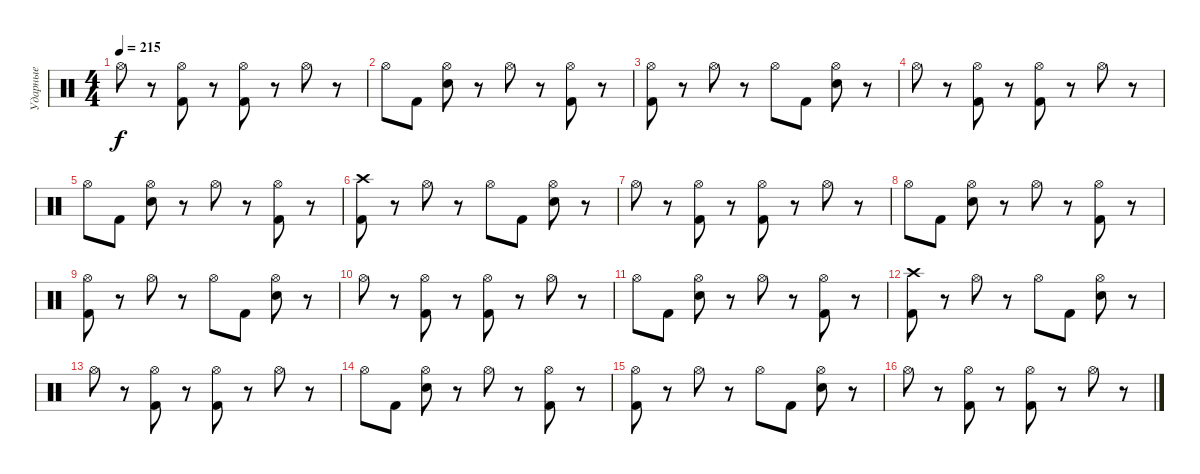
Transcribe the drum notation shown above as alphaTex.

\track ("Ударные" "Ударные") {instrument percussion}
\staff {score}
\articulation defaults
\ts (4 4)
\tempo 215
\clef neutral
\ks c "Hi-Hat (open)".8{dy f}
r.8 ("Hi-Hat (open)" "Kick (hit) 2").8 r.8 ("Hi-Hat (open)" "Kick (hit) 2").8 r.8 "Hi-Hat (open)".8 r.8 |
"Hi-Hat (open)".8 "Kick (hit) 2".8 ("Hi-Hat (open)" "Snare (hit) 2").8 r.8 "Hi-Hat (open)".8 r.8 ("Hi-Hat (open)" "Kick (hit) 2").8 r.8 |
("Hi-Hat (open)" "Kick (hit) 2").8 r.8 "Hi-Hat (open)".8 r.8 "Hi-Hat (open)".8 "Kick (hit) 2".8 ("Hi-Hat (open)" "Snare (hit) 2").8 r.8 |
"Hi-Hat (open)".8 r.8 ("Hi-Hat (open)" "Kick (hit) 2").8 r.8 ("Hi-Hat (open)" "Kick (hit) 2").8 r.8 "Hi-Hat (open)".8 r.8 |
"Hi-Hat (open)".8 "Kick (hit) 2".8 ("Hi-Hat (open)" "Snare (hit) 2").8 r.8 "Hi-Hat (open)".8 r.8 ("Hi-Hat (open)" "Kick (hit) 2").8 r.8 |
("Crash high (hit)" "Kick (hit) 2").8 r.8 "Hi-Hat (open)".8 r.8 "Hi-Hat (open)".8 "Kick (hit) 2".8 ("Hi-Hat (open)" "Snare (hit) 2").8 r.8 |
"Hi-Hat (open)".8 r.8 ("Hi-Hat (open)" "Kick (hit) 2").8 r.8 ("Hi-Hat (open)" "Kick (hit) 2").8 r.8 "Hi-Hat (open)".8 r.8 |
"Hi-Hat (open)".8 "Kick (hit) 2".8 ("Hi-Hat (open)" "Snare (hit) 2").8 r.8 "Hi-Hat (open)".8 r.8 ("Hi-Hat (open)" "Kick (hit) 2").8 r.8 |
("Hi-Hat (open)" "Kick (hit) 2").8 r.8 "Hi-Hat (open)".8 r.8 "Hi-Hat (open)".8 "Kick (hit) 2".8 ("Hi-Hat (open)" "Snare (hit) 2").8 r.8 |
"Hi-Hat (open)".8 r.8 ("Hi-Hat (open)" "Kick (hit) 2").8 r.8 ("Hi-Hat (open)" "Kick (hit) 2").8 r.8 "Hi-Hat (open)".8 r.8 |
"Hi-Hat (open)".8 "Kick (hit) 2".8 ("Hi-Hat (open)" "Snare (hit) 2").8 r.8 "Hi-Hat (open)".8 r.8 ("Hi-Hat (open)" "Kick (hit) 2").8 r.8 |
("Crash high (hit)" "Kick (hit) 2").8 r.8 "Hi-Hat (open)".8 r.8 "Hi-Hat (open)".8 "Kick (hit) 2".8 ("Hi-Hat (open)" "Snare (hit) 2").8 r.8 |
"Hi-Hat (open)".8 r.8 ("Hi-Hat (open)" "Kick (hit) 2").8 r.8 ("Hi-Hat (open)" "Kick (hit) 2").8 r.8 "Hi-Hat (open)".8 r.8 |
"Hi-Hat (open)".8 "Kick (hit) 2".8 ("Hi-Hat (open)" "Snare (hit) 2").8 r.8 "Hi-Hat (open)".8 r.8 ("Hi-Hat (open)" "Kick (hit) 2").8 r.8 |
("Hi-Hat (open)" "Kick (hit) 2").8 r.8 "Hi-Hat (open)".8 r.8 "Hi-Hat (open)".8 "Kick (hit) 2".8 ("Hi-Hat (open)" "Snare (hit) 2").8 r.8 |
"Hi-Hat (open)".8 r.8 ("Hi-Hat (open)" "Kick (hit) 2").8 r.8 ("Hi-Hat (open)" "Kick (hit) 2").8 r.8 "Hi-Hat (open)".8 r.8
